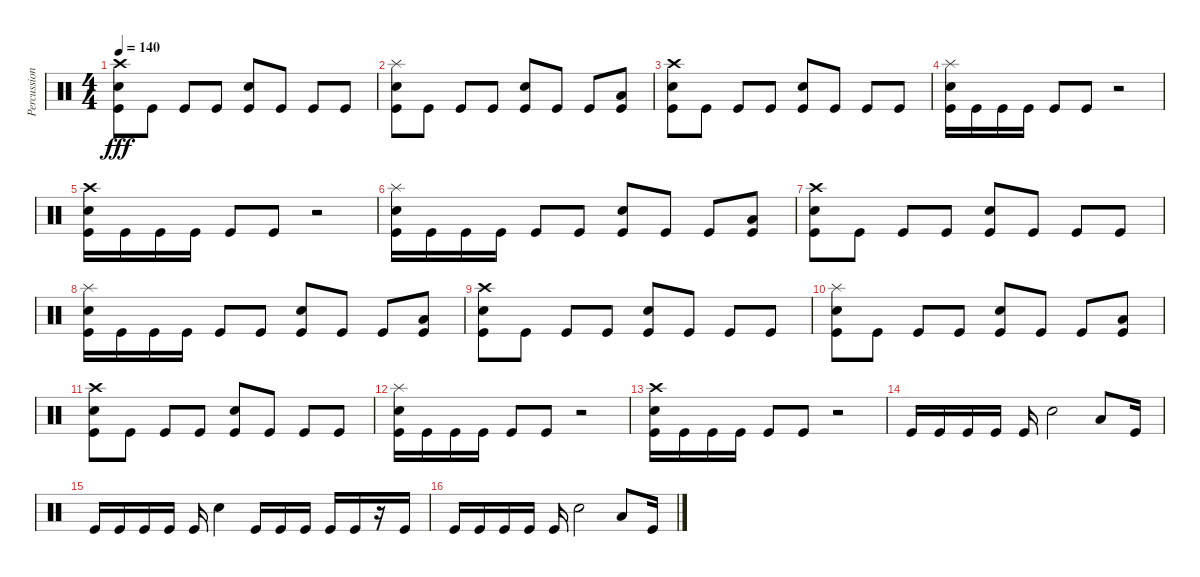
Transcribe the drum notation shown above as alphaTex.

\track ("Percussion" "Percussion") {instrument percussion}
\staff {score}
\articulation defaults
\ts (4 4)
\tempo 140
\clef neutral
\ks c
("Crash high (hit)" "Snare (hit) 2" "Kick (hit)").8{dy fff} "Kick (hit)".8 "Kick (hit)".8 "Kick (hit)".8 ("Snare (hit) 2" "Kick (hit)").8 "Kick (hit)".8 "Kick (hit)".8 "Kick (hit)".8 |
("Splash (hit)" "Snare (hit) 2" "Kick (hit)").8 "Kick (hit)".8 "Kick (hit)".8 "Kick (hit)".8 ("Snare (hit) 2" "Kick (hit)").8 "Kick (hit)".8 "Kick (hit)".8 ("Low Floor Tom (hit)" "Kick (hit)").8 |
("Crash high (hit)" "Snare (hit) 2" "Kick (hit)").8 "Kick (hit)".8 "Kick (hit)".8 "Kick (hit)".8 ("Snare (hit) 2" "Kick (hit)").8 "Kick (hit)".8 "Kick (hit)".8 "Kick (hit)".8 |
("Splash (hit)" "Snare (hit) 2" "Kick (hit)").16 "Kick (hit)".16 "Kick (hit)".16 "Kick (hit)".16 "Kick (hit)".8 "Kick (hit)".8 r.2 |
("Crash high (hit)" "Snare (hit) 2" "Kick (hit)").16 "Kick (hit)".16 "Kick (hit)".16 "Kick (hit)".16 "Kick (hit)".8 "Kick (hit)".8 r.2 |
("Splash (hit)" "Snare (hit) 2" "Kick (hit)").16 "Kick (hit)".16 "Kick (hit)".16 "Kick (hit)".16 "Kick (hit)".8 "Kick (hit)".8 ("Snare (hit) 2" "Kick (hit)").8 "Kick (hit)".8 "Kick (hit)".8 ("Low Floor Tom (hit)" "Kick (hit)").8 |
("Crash high (hit)" "Snare (hit) 2" "Kick (hit)").8 "Kick (hit)".8 "Kick (hit)".8 "Kick (hit)".8 ("Snare (hit) 2" "Kick (hit)").8 "Kick (hit)".8 "Kick (hit)".8 "Kick (hit)".8 |
("Splash (hit)" "Snare (hit) 2" "Kick (hit)").16 "Kick (hit)".16 "Kick (hit)".16 "Kick (hit)".16 "Kick (hit)".8 "Kick (hit)".8 ("Snare (hit) 2" "Kick (hit)").8 "Kick (hit)".8 "Kick (hit)".8 ("Low Floor Tom (hit)" "Kick (hit)").8 |
("Crash high (hit)" "Snare (hit) 2" "Kick (hit)").8 "Kick (hit)".8 "Kick (hit)".8 "Kick (hit)".8 ("Snare (hit) 2" "Kick (hit)").8 "Kick (hit)".8 "Kick (hit)".8 "Kick (hit)".8 |
("Splash (hit)" "Snare (hit) 2" "Kick (hit)").8 "Kick (hit)".8 "Kick (hit)".8 "Kick (hit)".8 ("Snare (hit) 2" "Kick (hit)").8 "Kick (hit)".8 "Kick (hit)".8 ("Low Floor Tom (hit)" "Kick (hit)").8 |
("Crash high (hit)" "Snare (hit) 2" "Kick (hit)").8 "Kick (hit)".8 "Kick (hit)".8 "Kick (hit)".8 ("Snare (hit) 2" "Kick (hit)").8 "Kick (hit)".8 "Kick (hit)".8 "Kick (hit)".8 |
("Splash (hit)" "Snare (hit) 2" "Kick (hit)").16 "Kick (hit)".16 "Kick (hit)".16 "Kick (hit)".16 "Kick (hit)".8 "Kick (hit)".8 r.2 |
("Crash high (hit)" "Snare (hit) 2" "Kick (hit)").16 "Kick (hit)".16 "Kick (hit)".16 "Kick (hit)".16 "Kick (hit)".8 "Kick (hit)".8 r.2 |
"Kick (hit)".16 "Kick (hit)".16 "Kick (hit)".16 "Kick (hit)".16 "Kick (hit)".16 "Snare (hit) 2".2 "Low Floor Tom (hit)".8 "Kick (hit)".16 |
"Kick (hit)".16 "Kick (hit)".16 "Kick (hit)".16 "Kick (hit)".16 "Kick (hit)".16 "Snare (hit) 2".4 "Kick (hit)".16 "Kick (hit)".16 "Kick (hit)".16 "Kick (hit)".16 "Kick (hit)".16 r.16 "Kick (hit)".16 |
"Kick (hit)".16 "Kick (hit)".16 "Kick (hit)".16 "Kick (hit)".16 "Kick (hit)".16 "Snare (hit) 2".2 "Low Floor Tom (hit)".8 "Kick (hit)".16
